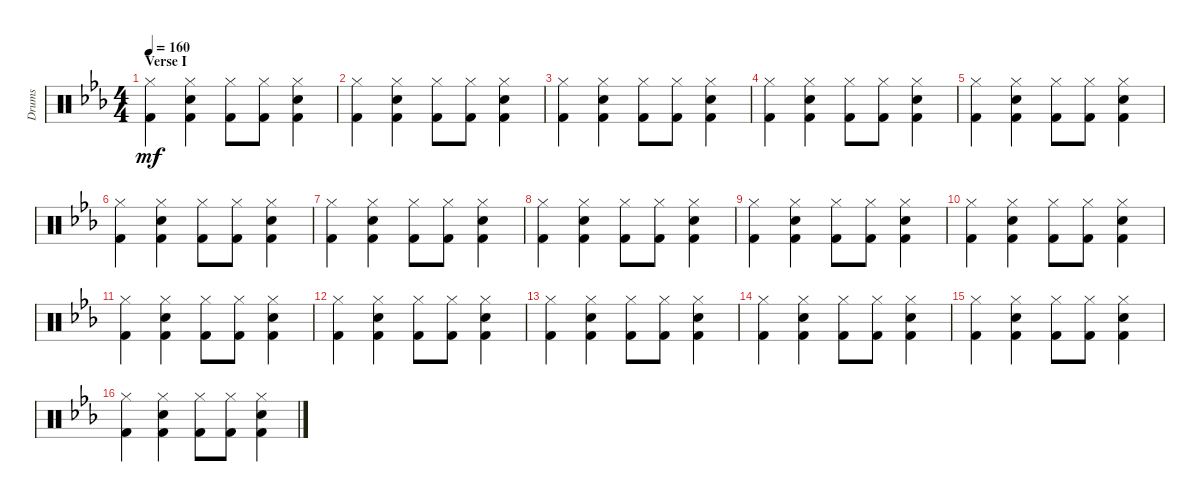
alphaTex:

\track ("Drums" "Drums") {instrument percussion}
\staff {score}
\articulation defaults
\ts (4 4)
\section ("" "Verse I")
\tempo 160
\clef neutral
\ks eb
("Hi-Hat (closed)" "Kick (hit) 2").4{dy mf} ("Hi-Hat (closed)" "Electric Snare (hit)" "Kick (hit) 2").4 ("Hi-Hat (closed)" "Kick (hit) 2").8 ("Hi-Hat (closed)" "Kick (hit) 2").8 ("Hi-Hat (closed)" "Electric Snare (hit)" "Kick (hit) 2").4 |
("Hi-Hat (closed)" "Kick (hit) 2").4 ("Hi-Hat (closed)" "Electric Snare (hit)" "Kick (hit) 2").4 ("Hi-Hat (closed)" "Kick (hit) 2").8 ("Hi-Hat (closed)" "Kick (hit) 2").8 ("Hi-Hat (closed)" "Electric Snare (hit)" "Kick (hit) 2").4 |
("Hi-Hat (closed)" "Kick (hit) 2").4 ("Hi-Hat (closed)" "Electric Snare (hit)" "Kick (hit) 2").4 ("Hi-Hat (closed)" "Kick (hit) 2").8 ("Hi-Hat (closed)" "Kick (hit) 2").8 ("Hi-Hat (closed)" "Electric Snare (hit)" "Kick (hit) 2").4 |
("Hi-Hat (closed)" "Kick (hit) 2").4 ("Hi-Hat (closed)" "Electric Snare (hit)" "Kick (hit) 2").4 ("Hi-Hat (closed)" "Kick (hit) 2").8 ("Hi-Hat (closed)" "Kick (hit) 2").8 ("Hi-Hat (closed)" "Electric Snare (hit)" "Kick (hit) 2").4 |
("Hi-Hat (closed)" "Kick (hit) 2").4 ("Hi-Hat (closed)" "Electric Snare (hit)" "Kick (hit) 2").4 ("Hi-Hat (closed)" "Kick (hit) 2").8 ("Hi-Hat (closed)" "Kick (hit) 2").8 ("Hi-Hat (closed)" "Electric Snare (hit)" "Kick (hit) 2").4 |
("Hi-Hat (closed)" "Kick (hit) 2").4 ("Hi-Hat (closed)" "Electric Snare (hit)" "Kick (hit) 2").4 ("Hi-Hat (closed)" "Kick (hit) 2").8 ("Hi-Hat (closed)" "Kick (hit) 2").8 ("Hi-Hat (closed)" "Electric Snare (hit)" "Kick (hit) 2").4 |
("Hi-Hat (closed)" "Kick (hit) 2").4 ("Hi-Hat (closed)" "Electric Snare (hit)" "Kick (hit) 2").4 ("Hi-Hat (closed)" "Kick (hit) 2").8 ("Hi-Hat (closed)" "Kick (hit) 2").8 ("Hi-Hat (closed)" "Electric Snare (hit)" "Kick (hit) 2").4 |
("Hi-Hat (closed)" "Kick (hit) 2").4 ("Hi-Hat (closed)" "Electric Snare (hit)" "Kick (hit) 2").4 ("Hi-Hat (closed)" "Kick (hit) 2").8 ("Hi-Hat (closed)" "Kick (hit) 2").8 ("Hi-Hat (closed)" "Electric Snare (hit)" "Kick (hit) 2").4 |
("Hi-Hat (closed)" "Kick (hit) 2").4 ("Hi-Hat (closed)" "Electric Snare (hit)" "Kick (hit) 2").4 ("Hi-Hat (closed)" "Kick (hit) 2").8 ("Hi-Hat (closed)" "Kick (hit) 2").8 ("Hi-Hat (closed)" "Electric Snare (hit)" "Kick (hit) 2").4 |
("Hi-Hat (closed)" "Kick (hit) 2").4 ("Hi-Hat (closed)" "Electric Snare (hit)" "Kick (hit) 2").4 ("Hi-Hat (closed)" "Kick (hit) 2").8 ("Hi-Hat (closed)" "Kick (hit) 2").8 ("Hi-Hat (closed)" "Electric Snare (hit)" "Kick (hit) 2").4 |
("Hi-Hat (closed)" "Kick (hit) 2").4 ("Hi-Hat (closed)" "Electric Snare (hit)" "Kick (hit) 2").4 ("Hi-Hat (closed)" "Kick (hit) 2").8 ("Hi-Hat (closed)" "Kick (hit) 2").8 ("Hi-Hat (closed)" "Electric Snare (hit)" "Kick (hit) 2").4 |
("Hi-Hat (closed)" "Kick (hit) 2").4 ("Hi-Hat (closed)" "Electric Snare (hit)" "Kick (hit) 2").4 ("Hi-Hat (closed)" "Kick (hit) 2").8 ("Hi-Hat (closed)" "Kick (hit) 2").8 ("Hi-Hat (closed)" "Electric Snare (hit)" "Kick (hit) 2").4 |
("Hi-Hat (closed)" "Kick (hit) 2").4 ("Hi-Hat (closed)" "Electric Snare (hit)" "Kick (hit) 2").4 ("Hi-Hat (closed)" "Kick (hit) 2").8 ("Hi-Hat (closed)" "Kick (hit) 2").8 ("Hi-Hat (closed)" "Electric Snare (hit)" "Kick (hit) 2").4 |
("Hi-Hat (closed)" "Kick (hit) 2").4 ("Hi-Hat (closed)" "Electric Snare (hit)" "Kick (hit) 2").4 ("Hi-Hat (closed)" "Kick (hit) 2").8 ("Hi-Hat (closed)" "Kick (hit) 2").8 ("Hi-Hat (closed)" "Electric Snare (hit)" "Kick (hit) 2").4 |
("Hi-Hat (closed)" "Kick (hit) 2").4 ("Hi-Hat (closed)" "Electric Snare (hit)" "Kick (hit) 2").4 ("Hi-Hat (closed)" "Kick (hit) 2").8 ("Hi-Hat (closed)" "Kick (hit) 2").8 ("Hi-Hat (closed)" "Electric Snare (hit)" "Kick (hit) 2").4 |
("Hi-Hat (closed)" "Kick (hit) 2").4 ("Hi-Hat (closed)" "Electric Snare (hit)" "Kick (hit) 2").4 ("Hi-Hat (closed)" "Kick (hit) 2").8 ("Hi-Hat (closed)" "Kick (hit) 2").8 ("Hi-Hat (closed)" "Electric Snare (hit)" "Kick (hit) 2").4
